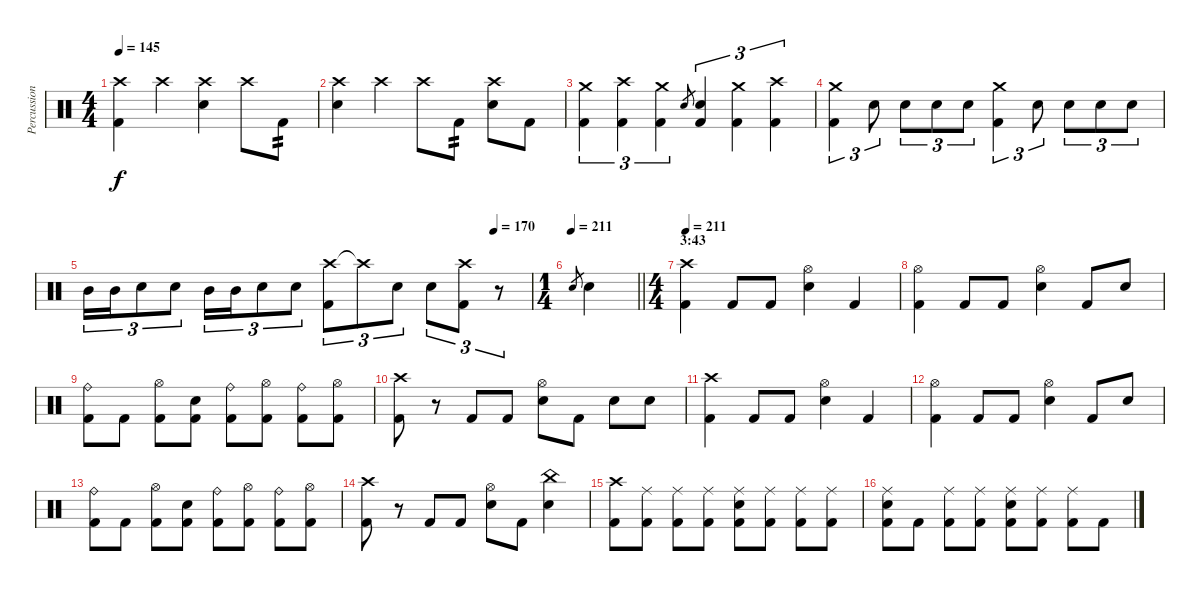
\track ("Percussion" "Percussion") {instrument percussion}
\staff {score}
\articulation defaults
\ts (4 4)
\tempo 145
\clef neutral
\ks c
("Kick (hit) 2" "Crash high (hit)").4{dy f} "Crash high (hit)".4 ("Crash high (hit)" "Electric Snare (hit)").4 "Crash high (hit)".8 "Kick (hit) 2".8{tp 2} |
("Crash high (hit)" "Electric Snare (hit)").4 "Crash high (hit)".4 "Crash high (hit)".8 "Kick (hit) 2".8{tp 2} ("Crash high (hit)" "Electric Snare (hit)").8 "Kick (hit) 2".8 |
("Crash medium (hit)" "Kick (hit) 2").4{tu (3 2)} ("Kick (hit) 2" "Crash high (hit)").4{tu (3 2)} ("Kick (hit) 2" "Crash medium (hit)").4{tu (3 2)} "Electric Snare (hit)".8{gr} ("Kick (hit) 2" "Electric Snare (hit)").4{tu (3 2)} ("Kick (hit) 2" "Crash medium (hit)").4{tu (3 2)} ("Kick (hit) 2" "Crash high (hit)").4{tu (3 2)} |
("Crash medium (hit)" "Kick (hit) 2").4{tu (3 2)} "Electric Snare (hit)".8{tu (3 2)} "Electric Snare (hit)".8{tu (3 2)} "Electric Snare (hit)".8{tu (3 2)} "Electric Snare (hit)".8{tu (3 2)} ("Crash medium (hit)" "Kick (hit) 2").4{tu (3 2)} "Electric Snare (hit)".8{tu (3 2)} "Electric Snare (hit)".8{tu (3 2)} "Electric Snare (hit)".8{tu (3 2)} "Electric Snare (hit)".8{tu (3 2)} |
\tempo (170 0.9166666666666666)
"Mid Tom (hit)".16{tu (3 2)} "Mid Tom (hit)".16{tu (3 2)} "Electric Snare (hit)".8{tu (3 2)} "Electric Snare (hit)".8{tu (3 2)} "Mid Tom (hit)".16{tu (3 2)} "Mid Tom (hit)".16{tu (3 2)} "Electric Snare (hit)".8{tu (3 2)} "Electric Snare (hit)".8{tu (3 2)} ("Crash high (hit)" "Kick (hit) 2").8{tu (3 2)} "Crash high (hit)"{t}.8{tu (3 2)} "Electric Snare (hit)".8{tu (3 2)} "Electric Snare (hit)".8{tu (3 2)} ("Kick (hit) 2" "Crash high (hit)").8{tu (3 2)} r.8{tu (3 2)} |
\ts (1 4)
\tempo 211
\barLineRight lightlight "Electric Snare (hit)".8{gr} "Electric Snare (hit)".4
|
\ts (4 4)
\section ("" "3:43")
\tempo 211
("Crash high (hit)" "Kick (hit) 2").4 "Kick (hit) 2".8 "Kick (hit) 2".8 ("Electric Snare (hit)" "Hi-Hat (open)").4 "Kick (hit) 2".4 |
("Hi-Hat (open)" "Kick (hit) 2").4 "Kick (hit) 2".8 "Kick (hit) 2".8 ("Electric Snare (hit)" "Hi-Hat (open)").4 "Kick (hit) 2".8 "Electric Snare (hit)".8 |
("Ride (bell)" "Kick (hit) 2").8 "Kick (hit) 2".8 ("Kick (hit) 2" "Hi-Hat (open)").8 ("Kick (hit) 2" "Electric Snare (hit)").8 ("Kick (hit) 2" "Ride (bell)").8 ("Kick (hit) 2" "Hi-Hat (open)").8 ("Ride (bell)" "Kick (hit) 2").8 ("Kick (hit) 2" "Hi-Hat (open)").8 |
("Kick (hit) 2" "Crash high (hit)").8 r.8 "Kick (hit) 2".8 "Kick (hit) 2".8 ("Hi-Hat (open)" "Electric Snare (hit)").8 "Kick (hit) 2".8 "Electric Snare (hit)".8 "Electric Snare (hit)".8 |
("Crash high (hit)" "Kick (hit) 2").4 "Kick (hit) 2".8 "Kick (hit) 2".8 ("Electric Snare (hit)" "Hi-Hat (open)").4 "Kick (hit) 2".4 |
("Hi-Hat (open)" "Kick (hit) 2").4 "Kick (hit) 2".8 "Kick (hit) 2".8 ("Electric Snare (hit)" "Hi-Hat (open)").4 "Kick (hit) 2".8 "Electric Snare (hit)".8 |
("Ride (bell)" "Kick (hit) 2").8 "Kick (hit) 2".8 ("Kick (hit) 2" "Hi-Hat (open)").8 ("Kick (hit) 2" "Electric Snare (hit)").8 ("Kick (hit) 2" "Ride (bell)").8 ("Kick (hit) 2" "Hi-Hat (open)").8 ("Ride (bell)" "Kick (hit) 2").8 ("Kick (hit) 2" "Hi-Hat (open)").8 |
("Kick (hit) 2" "Crash high (hit)").8 r.8 "Kick (hit) 2".8 "Kick (hit) 2".8 ("Hi-Hat (open)" "Electric Snare (hit)").8 "Kick (hit) 2".8 ("China (hit)" "Electric Snare (hit)").4 |
("Kick (hit) 2" "Crash high (hit)").8 ("Kick (hit) 2" "Ride (middle)").8 ("Kick (hit) 2" "Ride (middle)").8 ("Kick (hit) 2" "Ride (middle)").8 ("Kick (hit) 2" "Ride (middle)" "Electric Snare (hit)").8 ("Kick (hit) 2" "Ride (middle)").8 ("Kick (hit) 2" "Ride (middle)").8 ("Kick (hit) 2" "Ride (middle)").8 |
("Kick (hit) 2" "Ride (middle)" "Electric Snare (hit)").8 "Kick (hit) 2".8 ("Kick (hit) 2" "Ride (middle)").8 ("Kick (hit) 2" "Ride (middle)").8 ("Kick (hit) 2" "Ride (middle)" "Electric Snare (hit)").8 ("Kick (hit) 2" "Ride (middle)").8 ("Kick (hit) 2" "Ride (middle)").8 "Kick (hit) 2".8
